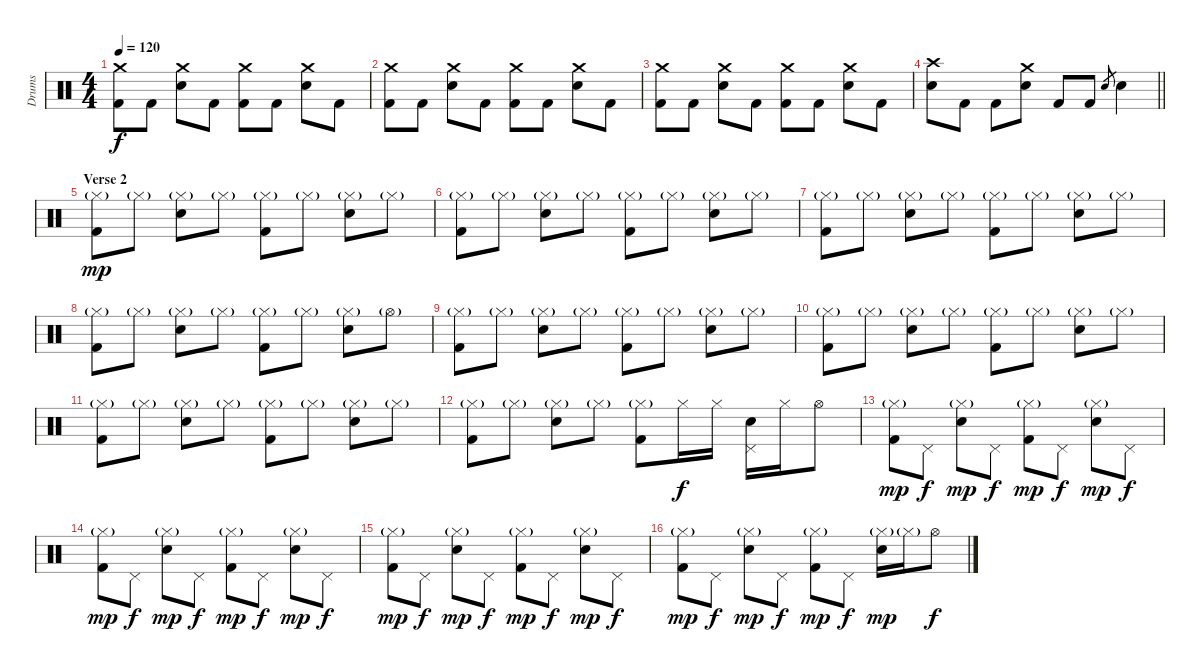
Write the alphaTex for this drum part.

\track ("Drums " "Drums ") {instrument percussion}
\staff {score}
\articulation defaults
\ts (4 4)
\tempo 120
\clef neutral
\ks c
("Crash medium (hit)" "Kick (hit) 2").8{dy f} "Kick (hit) 2".8 ("Crash medium (hit)" "Electric Snare (hit)").8 "Kick (hit) 2".8 ("Crash medium (hit)" "Kick (hit) 2").8 "Kick (hit) 2".8 ("Crash medium (hit)" "Electric Snare (hit)").8 "Kick (hit) 2".8 |
("Crash medium (hit)" "Kick (hit) 2").8 "Kick (hit) 2".8 ("Crash medium (hit)" "Electric Snare (hit)").8 "Kick (hit) 2".8 ("Crash medium (hit)" "Kick (hit) 2").8 "Kick (hit) 2".8 ("Crash medium (hit)" "Electric Snare (hit)").8 "Kick (hit) 2".8 |
("Crash medium (hit)" "Kick (hit) 2").8 "Kick (hit) 2".8 ("Crash medium (hit)" "Electric Snare (hit)").8 "Kick (hit) 2".8 ("Crash medium (hit)" "Kick (hit) 2").8 "Kick (hit) 2".8 ("Crash medium (hit)" "Electric Snare (hit)").8 "Kick (hit) 2".8 |
\barLineRight lightlight
("Crash high (hit)" "Electric Snare (hit)").8 "Kick (hit) 2".8 "Kick (hit) 2".8 ("Crash medium (hit)" "Electric Snare (hit)").8 "Kick (hit) 2".8 "Kick (hit) 2".8 "Electric Snare (hit)".8{gr} "Electric Snare (hit)".4 |
\section ("" "Verse 2")
("Hi-Hat (closed)"{g} "Kick (hit) 2").8{dy mp} "Hi-Hat (closed)"{g}.8 ("Hi-Hat (closed)"{g} "Electric Snare (hit)").8 "Hi-Hat (closed)"{g}.8 ("Hi-Hat (closed)"{g} "Kick (hit) 2").8 "Hi-Hat (closed)"{g}.8 ("Hi-Hat (closed)"{g} "Electric Snare (hit)").8 "Hi-Hat (closed)"{g}.8 |
("Hi-Hat (closed)"{g} "Kick (hit) 2").8 "Hi-Hat (closed)"{g}.8 ("Hi-Hat (closed)"{g} "Electric Snare (hit)").8 "Hi-Hat (closed)"{g}.8 ("Hi-Hat (closed)"{g} "Kick (hit) 2").8 "Hi-Hat (closed)"{g}.8 ("Hi-Hat (closed)"{g} "Electric Snare (hit)").8 "Hi-Hat (closed)"{g}.8 |
("Hi-Hat (closed)"{g} "Kick (hit) 2").8 "Hi-Hat (closed)"{g}.8 ("Hi-Hat (closed)"{g} "Electric Snare (hit)").8 "Hi-Hat (closed)"{g}.8 ("Hi-Hat (closed)"{g} "Kick (hit) 2").8 "Hi-Hat (closed)"{g}.8 ("Hi-Hat (closed)"{g} "Electric Snare (hit)").8 "Hi-Hat (closed)"{g}.8 |
("Hi-Hat (closed)"{g} "Kick (hit) 2").8 "Hi-Hat (closed)"{g}.8 ("Hi-Hat (closed)"{g} "Electric Snare (hit)").8 "Hi-Hat (closed)"{g}.8 ("Hi-Hat (closed)"{g} "Kick (hit) 2").8 "Hi-Hat (closed)"{g}.8 ("Hi-Hat (closed)"{g} "Electric Snare (hit)").8 "Hi-Hat (open)"{g}.8 |
("Hi-Hat (closed)"{g} "Kick (hit) 2").8 "Hi-Hat (closed)"{g}.8 ("Hi-Hat (closed)"{g} "Electric Snare (hit)").8 "Hi-Hat (closed)"{g}.8 ("Hi-Hat (closed)"{g} "Kick (hit) 2").8 "Hi-Hat (closed)"{g}.8 ("Hi-Hat (closed)"{g} "Electric Snare (hit)").8 "Hi-Hat (closed)"{g}.8 |
("Hi-Hat (closed)"{g} "Kick (hit) 2").8 "Hi-Hat (closed)"{g}.8 ("Hi-Hat (closed)"{g} "Electric Snare (hit)").8 "Hi-Hat (closed)"{g}.8 ("Hi-Hat (closed)"{g} "Kick (hit) 2").8 "Hi-Hat (closed)"{g}.8 ("Hi-Hat (closed)"{g} "Electric Snare (hit)").8 "Hi-Hat (closed)"{g}.8 |
("Hi-Hat (closed)"{g} "Kick (hit) 2").8 "Hi-Hat (closed)"{g}.8 ("Hi-Hat (closed)"{g} "Electric Snare (hit)").8 "Hi-Hat (closed)"{g}.8 ("Hi-Hat (closed)"{g} "Kick (hit) 2").8 "Hi-Hat (closed)"{g}.8 ("Hi-Hat (closed)"{g} "Electric Snare (hit)").8 "Hi-Hat (closed)"{g}.8 |
("Hi-Hat (closed)"{g} "Kick (hit) 2").8 "Hi-Hat (closed)"{g}.8 ("Hi-Hat (closed)"{g} "Electric Snare (hit)").8 "Hi-Hat (closed)"{g}.8 ("Hi-Hat (closed)"{g} "Kick (hit) 2").8 "Hi-Hat (closed)".16{dy f} "Hi-Hat (closed)".16 ("Pedal Hi-Hat (hit)" "Electric Snare (hit)").16 "Hi-Hat (closed)".16 "Hi-Hat (open)".8 |
("Hi-Hat (closed)"{g} "Kick (hit) 2").8{dy mp} "Pedal Hi-Hat (hit)".8{dy f} ("Hi-Hat (closed)"{g} "Electric Snare (hit)").8{dy mp} "Pedal Hi-Hat (hit)".8{dy f} ("Hi-Hat (closed)"{g} "Kick (hit) 2").8{dy mp} "Pedal Hi-Hat (hit)".8{dy f} ("Hi-Hat (closed)"{g} "Electric Snare (hit)").8{dy mp} "Pedal Hi-Hat (hit)".8{dy f} |
("Hi-Hat (closed)"{g} "Kick (hit) 2").8{dy mp} "Pedal Hi-Hat (hit)".8{dy f} ("Hi-Hat (closed)"{g} "Electric Snare (hit)").8{dy mp} "Pedal Hi-Hat (hit)".8{dy f} ("Hi-Hat (closed)"{g} "Kick (hit) 2").8{dy mp} "Pedal Hi-Hat (hit)".8{dy f} ("Hi-Hat (closed)"{g} "Electric Snare (hit)").8{dy mp} "Pedal Hi-Hat (hit)".8{dy f} |
("Hi-Hat (closed)"{g} "Kick (hit) 2").8{dy mp} "Pedal Hi-Hat (hit)".8{dy f} ("Hi-Hat (closed)"{g} "Electric Snare (hit)").8{dy mp} "Pedal Hi-Hat (hit)".8{dy f} ("Hi-Hat (closed)"{g} "Kick (hit) 2").8{dy mp} "Pedal Hi-Hat (hit)".8{dy f} ("Hi-Hat (closed)"{g} "Electric Snare (hit)").8{dy mp} "Pedal Hi-Hat (hit)".8{dy f} |
("Hi-Hat (closed)"{g} "Kick (hit) 2").8{dy mp} "Pedal Hi-Hat (hit)".8{dy f} ("Hi-Hat (closed)"{g} "Electric Snare (hit)").8{dy mp} "Pedal Hi-Hat (hit)".8{dy f} ("Hi-Hat (closed)"{g} "Kick (hit) 2").8{dy mp} "Pedal Hi-Hat (hit)".8{dy f} ("Hi-Hat (closed)"{g} "Electric Snare (hit)").16{dy mp} "Hi-Hat (closed)"{g}.16 "Hi-Hat (open)".8{dy f}
